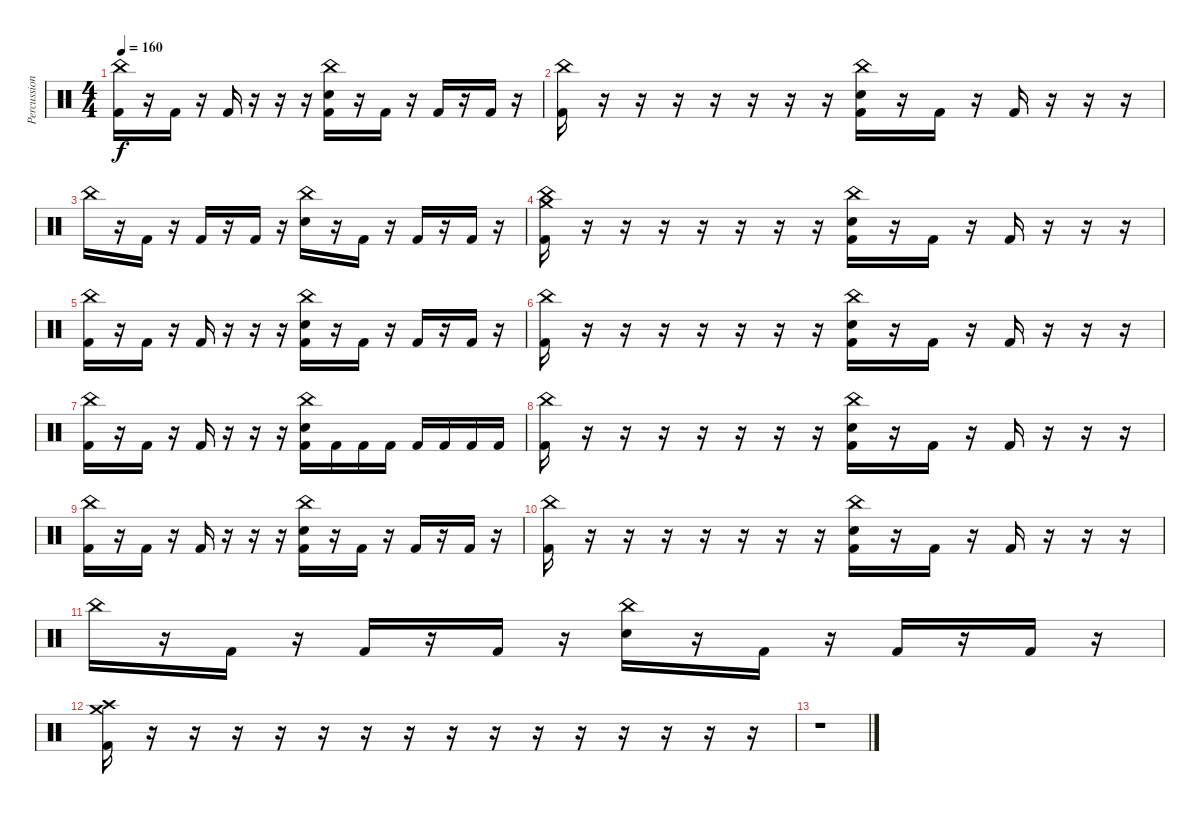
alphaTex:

\track ("Percussion" "Percussion") {instrument percussion}
\staff {score}
\articulation defaults
\ts (4 4)
\tempo 160
\clef neutral
\ks c
("China (hit)" "Kick (hit) 2").16{dy f} r.16 "Kick (hit) 2".16 r.16 "Kick (hit) 2".16 r.16 r.16 r.16 ("China (hit)" "Electric Snare (hit)" "Kick (hit) 2").16 r.16 "Kick (hit) 2".16 r.16 "Kick (hit) 2".16 r.16 "Kick (hit) 2".16 r.16 |
("China (hit)" "Kick (hit) 2").16 r.16 r.16 r.16 r.16 r.16 r.16 r.16 ("China (hit)" "Electric Snare (hit)" "Kick (hit) 2").16 r.16 "Kick (hit) 2".16 r.16 "Kick (hit) 2".16 r.16 r.16 r.16 |
"China (hit)".16 r.16 "Kick (hit) 2".16 r.16 "Kick (hit) 2".16 r.16 "Kick (hit) 2".16 r.16 ("China (hit)" "Electric Snare (hit)").16 r.16 "Kick (hit) 2".16 r.16 "Kick (hit) 2".16 r.16 "Kick (hit) 2".16 r.16 |
("Crash medium (hit)" "China (hit)" "Kick (hit) 2").16 r.16 r.16 r.16 r.16 r.16 r.16 r.16 ("China (hit)" "Electric Snare (hit)" "Kick (hit) 2").16 r.16 "Kick (hit) 2".16 r.16 "Kick (hit) 2".16 r.16 r.16 r.16 |
("China (hit)" "Kick (hit) 2").16 r.16 "Kick (hit) 2".16 r.16 "Kick (hit) 2".16 r.16 r.16 r.16 ("China (hit)" "Electric Snare (hit)" "Kick (hit) 2").16 r.16 "Kick (hit) 2".16 r.16 "Kick (hit) 2".16 r.16 "Kick (hit) 2".16 r.16 |
("China (hit)" "Kick (hit) 2").16 r.16 r.16 r.16 r.16 r.16 r.16 r.16 ("China (hit)" "Electric Snare (hit)" "Kick (hit) 2").16 r.16 "Kick (hit) 2".16 r.16 "Kick (hit) 2".16 r.16 r.16 r.16 |
("China (hit)" "Kick (hit) 2").16 r.16 "Kick (hit) 2".16 r.16 "Kick (hit) 2".16 r.16 r.16 r.16 ("China (hit)" "Electric Snare (hit)" "Kick (hit) 2").16 "Kick (hit) 2".16 "Kick (hit) 2".16 "Kick (hit) 2".16 "Kick (hit) 2".16 "Kick (hit) 2".16 "Kick (hit) 2".16 "Kick (hit) 2".16 |
("China (hit)" "Kick (hit) 2").16 r.16 r.16 r.16 r.16 r.16 r.16 r.16 ("China (hit)" "Electric Snare (hit)" "Kick (hit) 2").16 r.16 "Kick (hit) 2".16 r.16 "Kick (hit) 2".16 r.16 r.16 r.16 |
("China (hit)" "Kick (hit) 2").16 r.16 "Kick (hit) 2".16 r.16 "Kick (hit) 2".16 r.16 r.16 r.16 ("China (hit)" "Electric Snare (hit)" "Kick (hit) 2").16 r.16 "Kick (hit) 2".16 r.16 "Kick (hit) 2".16 r.16 "Kick (hit) 2".16 r.16 |
("China (hit)" "Kick (hit) 2").16 r.16 r.16 r.16 r.16 r.16 r.16 r.16 ("China (hit)" "Electric Snare (hit)" "Kick (hit) 2").16 r.16 "Kick (hit) 2".16 r.16 "Kick (hit) 2".16 r.16 r.16 r.16 |
"China (hit)".16 r.16 "Kick (hit) 2".16 r.16 "Kick (hit) 2".16 r.16 "Kick (hit) 2".16 r.16 ("China (hit)" "Electric Snare (hit)").16 r.16 "Kick (hit) 2".16 r.16 "Kick (hit) 2".16 r.16 "Kick (hit) 2".16 r.16 |
("Crash medium (hit)" "Crash high (hit)" "Kick (hit) 2").16 r.16 r.16 r.16 r.16 r.16 r.16 r.16 r.16 r.16 r.16 r.16 r.16 r.16 r.16 r.16 |
r.1
